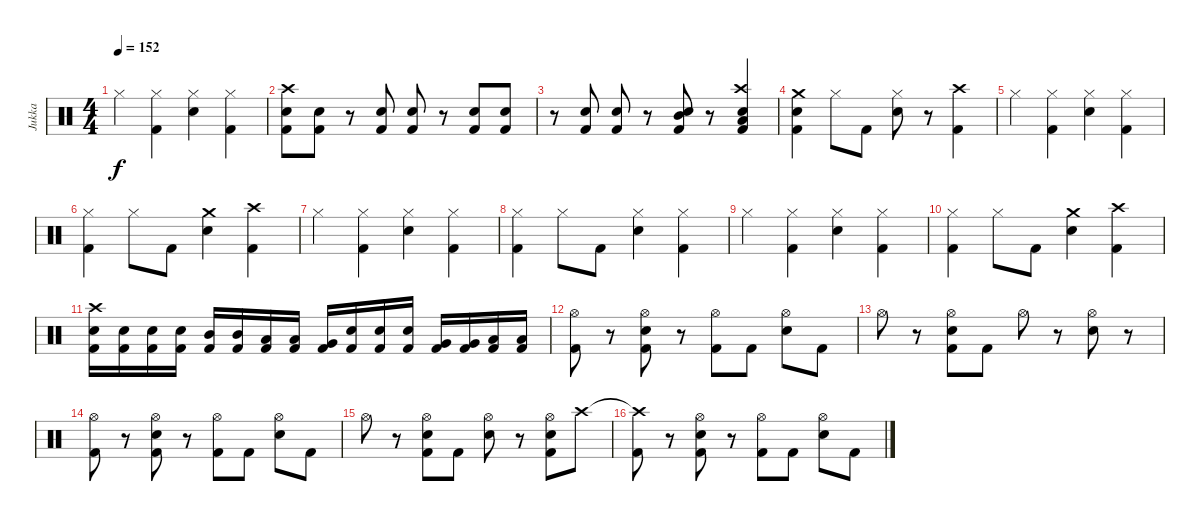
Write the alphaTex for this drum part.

\track ("Jukka" "Jukka") {instrument percussion}
\staff {score}
\articulation defaults
\ts (4 4)
\tempo 152
\clef neutral
\ks c "Hi-Hat (closed)".4{dy f}
("Hi-Hat (closed)" "Kick (hit) 2").4 ("Hi-Hat (closed)" "Electric Snare (hit)").4 ("Hi-Hat (closed)" "Kick (hit) 2").4 |
("Crash high (hit)" "Electric Snare (hit)" "Kick (hit) 2").8 ("Electric Snare (hit)" "Kick (hit) 2").8 r.8 ("Electric Snare (hit)" "Kick (hit) 2").8 ("Electric Snare (hit)" "Kick (hit) 2").8 r.8 ("Electric Snare (hit)" "Kick (hit) 2").8 ("Electric Snare (hit)" "Kick (hit) 2").8 |
r.8 ("Electric Snare (hit)" "Kick (hit) 2").8 ("Electric Snare (hit)" "Kick (hit) 2").8 r.8 ("Electric Snare (hit)" "Mid Tom (hit)" "Kick (hit) 2").8 r.8 ("Crash high (hit)" "Electric Snare (hit)" "Low Tom (hit)" "Kick (hit) 2").4 |
("Crash medium (hit)" "Electric Snare (hit)" "Kick (hit) 2").4 "Hi-Hat (closed)".8 "Kick (hit) 2".8 ("Hi-Hat (closed)" "Electric Snare (hit)").8 r.8 ("Crash high (hit)" "Kick (hit) 2").4 |
"Hi-Hat (closed)".4 ("Hi-Hat (closed)" "Kick (hit) 2").4 ("Hi-Hat (closed)" "Electric Snare (hit)").4 ("Hi-Hat (closed)" "Kick (hit) 2").4 |
("Hi-Hat (closed)" "Kick (hit) 2").4 "Hi-Hat (closed)".8 "Kick (hit) 2".8 ("Crash medium (hit)" "Electric Snare (hit)").4 ("Crash high (hit)" "Kick (hit) 2").4 |
"Hi-Hat (closed)".4 ("Hi-Hat (closed)" "Kick (hit) 2").4 ("Hi-Hat (closed)" "Electric Snare (hit)").4 ("Hi-Hat (closed)" "Kick (hit) 2").4 |
("Hi-Hat (closed)" "Kick (hit) 2").4 "Hi-Hat (closed)".8 "Kick (hit) 2".8 ("Hi-Hat (closed)" "Electric Snare (hit)").4 ("Hi-Hat (closed)" "Kick (hit) 2").4 |
"Hi-Hat (closed)".4 ("Hi-Hat (closed)" "Kick (hit) 2").4 ("Hi-Hat (closed)" "Electric Snare (hit)").4 ("Hi-Hat (closed)" "Kick (hit) 2").4 |
("Hi-Hat (closed)" "Kick (hit) 2").4 "Hi-Hat (closed)".8 "Kick (hit) 2".8 ("Crash medium (hit)" "Electric Snare (hit)").4 ("Crash high (hit)" "Kick (hit) 2").4 |
("Crash high (hit)" "Electric Snare (hit)" "Kick (hit) 2").16 ("Electric Snare (hit)" "Kick (hit) 2").16 ("Electric Snare (hit)" "Kick (hit) 2").16 ("Electric Snare (hit)" "Kick (hit) 2").16 ("Mid Tom (hit)" "Kick (hit) 2").16 ("Mid Tom (hit)" "Kick (hit) 2").16 ("Low Tom (hit)" "Kick (hit) 2").16 ("Low Tom (hit)" "Kick (hit) 2").16 ("Very Low Tom (hit)" "Kick (hit) 2").16 ("Electric Snare (hit)" "Kick (hit) 2").16 ("Electric Snare (hit)" "Kick (hit) 2").16 ("Electric Snare (hit)" "Kick (hit) 2").16 ("Very Low Tom (hit)" "Kick (hit) 2").16 ("Very Low Tom (hit)" "Kick (hit) 2").16 ("Low Floor Tom (hit)" "Kick (hit) 2").16 ("Low Floor Tom (hit)" "Kick (hit) 2").16 |
("Hi-Hat (open)" "Kick (hit) 2").8 r.8 ("Hi-Hat (open)" "Electric Snare (hit)" "Kick (hit) 2").8 r.8 ("Hi-Hat (open)" "Kick (hit) 2").8 "Kick (hit) 2".8 ("Hi-Hat (open)" "Electric Snare (hit)").8 "Kick (hit) 2".8 |
"Hi-Hat (open)".8 r.8 ("Hi-Hat (open)" "Electric Snare (hit)" "Kick (hit) 2").8 "Kick (hit) 2".8 "Hi-Hat (open)".8 r.8 ("Hi-Hat (open)" "Electric Snare (hit)").8 r.8 |
("Hi-Hat (open)" "Kick (hit) 2").8 r.8 ("Hi-Hat (open)" "Electric Snare (hit)" "Kick (hit) 2").8 r.8 ("Hi-Hat (open)" "Kick (hit) 2").8 "Kick (hit) 2".8 ("Hi-Hat (open)" "Electric Snare (hit)").8 "Kick (hit) 2".8 |
"Hi-Hat (open)".8 r.8 ("Hi-Hat (open)" "Electric Snare (hit)" "Kick (hit) 2").8 "Kick (hit) 2".8 ("Hi-Hat (open)" "Electric Snare (hit)").8 r.8 ("Hi-Hat (open)" "Electric Snare (hit)" "Kick (hit) 2").8 "Crash high (hit)".8 |
("Crash high (hit)"{t} "Kick (hit) 2").8 r.8 ("Hi-Hat (open)" "Electric Snare (hit)" "Kick (hit) 2").8 r.8 ("Hi-Hat (open)" "Kick (hit) 2").8 "Kick (hit) 2".8 ("Hi-Hat (open)" "Electric Snare (hit)").8 "Kick (hit) 2".8
